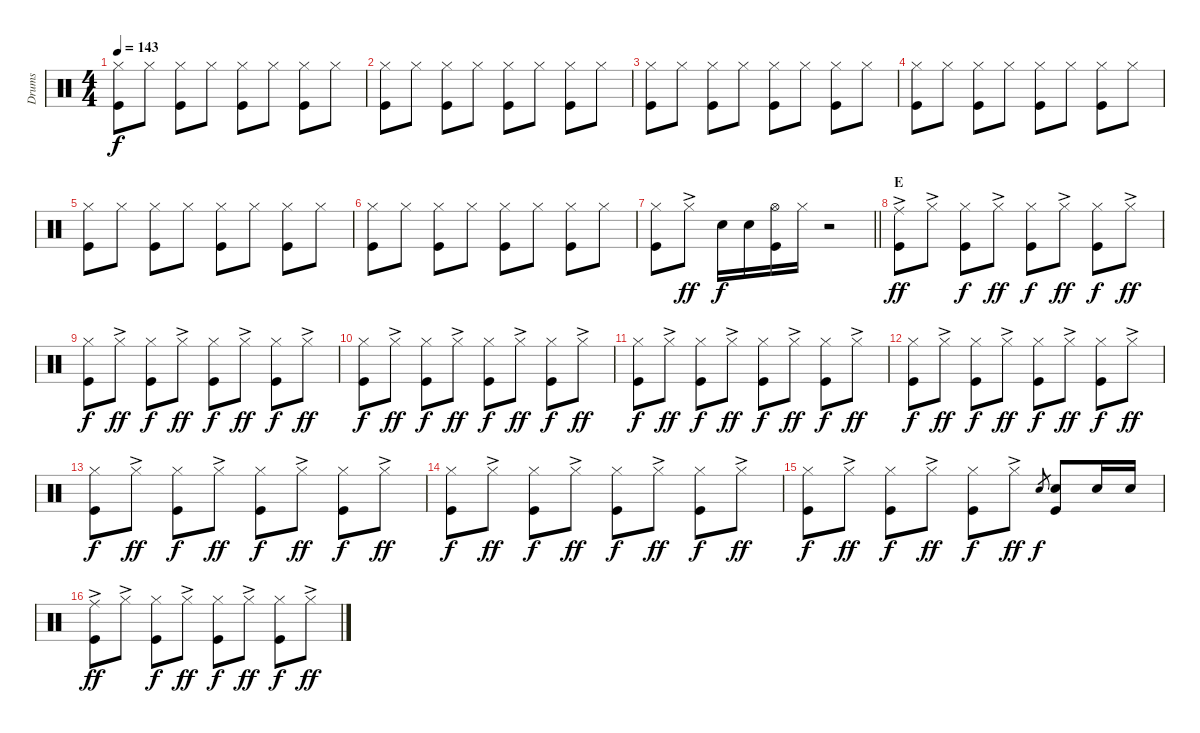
\track ("Drums" "Drums") {instrument percussion}
\staff {score}
\articulation defaults
\ts (4 4)
\tempo 143
\clef neutral
\ks c
("Kick (hit)" "Hi-Hat (closed)").8{dy f} "Hi-Hat (closed)".8 ("Hi-Hat (closed)" "Kick (hit)").8 "Hi-Hat (closed)".8 ("Hi-Hat (closed)" "Kick (hit)").8 "Hi-Hat (closed)".8 ("Hi-Hat (closed)" "Kick (hit)").8 "Hi-Hat (closed)".8 |
("Kick (hit)" "Hi-Hat (closed)").8 "Hi-Hat (closed)".8 ("Hi-Hat (closed)" "Kick (hit)").8 "Hi-Hat (closed)".8 ("Hi-Hat (closed)" "Kick (hit)").8 "Hi-Hat (closed)".8 ("Hi-Hat (closed)" "Kick (hit)").8 "Hi-Hat (closed)".8 |
("Kick (hit)" "Hi-Hat (closed)").8 "Hi-Hat (closed)".8 ("Hi-Hat (closed)" "Kick (hit)").8 "Hi-Hat (closed)".8 ("Hi-Hat (closed)" "Kick (hit)").8 "Hi-Hat (closed)".8 ("Hi-Hat (closed)" "Kick (hit)").8 "Hi-Hat (closed)".8 |
("Kick (hit)" "Hi-Hat (closed)").8 "Hi-Hat (closed)".8 ("Hi-Hat (closed)" "Kick (hit)").8 "Hi-Hat (closed)".8 ("Hi-Hat (closed)" "Kick (hit)").8 "Hi-Hat (closed)".8 ("Hi-Hat (closed)" "Kick (hit)").8 "Hi-Hat (closed)".8 |
("Kick (hit)" "Hi-Hat (closed)").8 "Hi-Hat (closed)".8 ("Hi-Hat (closed)" "Kick (hit)").8 "Hi-Hat (closed)".8 ("Hi-Hat (closed)" "Kick (hit)").8 "Hi-Hat (closed)".8 ("Hi-Hat (closed)" "Kick (hit)").8 "Hi-Hat (closed)".8 |
("Kick (hit)" "Hi-Hat (closed)").8 "Hi-Hat (closed)".8 ("Hi-Hat (closed)" "Kick (hit)").8 "Hi-Hat (closed)".8 ("Hi-Hat (closed)" "Kick (hit)").8 "Hi-Hat (closed)".8 ("Hi-Hat (closed)" "Kick (hit)").8 "Hi-Hat (closed)".8 |
\barLineRight lightlight
("Kick (hit)" "Hi-Hat (closed)").8 "Hi-Hat (closed)"{ac}.8{dy ff} "Snare (hit) 2".16{dy f} "Snare (hit) 2".16 ("Hi-Hat (open)" "Kick (hit)").16 "Hi-Hat (closed)".16 r.2 |
\section ("" "E")
("Ride (middle)"{ac} "Kick (hit)").8{dy ff} "Hi-Hat (closed)"{ac}.8 ("Hi-Hat (closed)" "Kick (hit)").8{dy f} "Hi-Hat (closed)"{ac}.8{dy ff} ("Hi-Hat (closed)" "Kick (hit)").8{dy f} "Hi-Hat (closed)"{ac}.8{dy ff} ("Hi-Hat (closed)" "Kick (hit)").8{dy f} "Hi-Hat (closed)"{ac}.8{dy ff} |
("Kick (hit)" "Hi-Hat (closed)").8{dy f} "Hi-Hat (closed)"{ac}.8{dy ff} ("Hi-Hat (closed)" "Kick (hit)").8{dy f} "Hi-Hat (closed)"{ac}.8{dy ff} ("Hi-Hat (closed)" "Kick (hit)").8{dy f} "Hi-Hat (closed)"{ac}.8{dy ff} ("Hi-Hat (closed)" "Kick (hit)").8{dy f} "Hi-Hat (closed)"{ac}.8{dy ff} |
("Kick (hit)" "Hi-Hat (closed)").8{dy f} "Hi-Hat (closed)"{ac}.8{dy ff} ("Hi-Hat (closed)" "Kick (hit)").8{dy f} "Hi-Hat (closed)"{ac}.8{dy ff} ("Hi-Hat (closed)" "Kick (hit)").8{dy f} "Hi-Hat (closed)"{ac}.8{dy ff} ("Hi-Hat (closed)" "Kick (hit)").8{dy f} "Hi-Hat (closed)"{ac}.8{dy ff} |
("Kick (hit)" "Hi-Hat (closed)").8{dy f} "Hi-Hat (closed)"{ac}.8{dy ff} ("Hi-Hat (closed)" "Kick (hit)").8{dy f} "Hi-Hat (closed)"{ac}.8{dy ff} ("Hi-Hat (closed)" "Kick (hit)").8{dy f} "Hi-Hat (closed)"{ac}.8{dy ff} ("Hi-Hat (closed)" "Kick (hit)").8{dy f} "Hi-Hat (closed)"{ac}.8{dy ff} |
("Kick (hit)" "Hi-Hat (closed)").8{dy f} "Hi-Hat (closed)"{ac}.8{dy ff} ("Hi-Hat (closed)" "Kick (hit)").8{dy f} "Hi-Hat (closed)"{ac}.8{dy ff} ("Hi-Hat (closed)" "Kick (hit)").8{dy f} "Hi-Hat (closed)"{ac}.8{dy ff} ("Hi-Hat (closed)" "Kick (hit)").8{dy f} "Hi-Hat (closed)"{ac}.8{dy ff} |
("Kick (hit)" "Hi-Hat (closed)").8{dy f} "Hi-Hat (closed)"{ac}.8{dy ff} ("Hi-Hat (closed)" "Kick (hit)").8{dy f} "Hi-Hat (closed)"{ac}.8{dy ff} ("Hi-Hat (closed)" "Kick (hit)").8{dy f} "Hi-Hat (closed)"{ac}.8{dy ff} ("Hi-Hat (closed)" "Kick (hit)").8{dy f} "Hi-Hat (closed)"{ac}.8{dy ff} |
("Kick (hit)" "Hi-Hat (closed)").8{dy f} "Hi-Hat (closed)"{ac}.8{dy ff} ("Hi-Hat (closed)" "Kick (hit)").8{dy f} "Hi-Hat (closed)"{ac}.8{dy ff} ("Hi-Hat (closed)" "Kick (hit)").8{dy f} "Hi-Hat (closed)"{ac}.8{dy ff} ("Hi-Hat (closed)" "Kick (hit)").8{dy f} "Hi-Hat (closed)"{ac}.8{dy ff} |
("Kick (hit)" "Hi-Hat (closed)").8{dy f} "Hi-Hat (closed)"{ac}.8{dy ff} ("Hi-Hat (closed)" "Kick (hit)").8{dy f} "Hi-Hat (closed)"{ac}.8{dy ff} ("Hi-Hat (closed)" "Kick (hit)").8{dy f} "Hi-Hat (closed)"{ac}.8{dy ff} "Snare (hit) 2".8{gr dy f} ("Snare (hit) 2" "Kick (hit)").8 "Snare (hit) 2".16 "Snare (hit) 2".16 |
("Ride (middle)"{ac} "Kick (hit)").8{dy ff} "Hi-Hat (closed)"{ac}.8 ("Hi-Hat (closed)" "Kick (hit)").8{dy f} "Hi-Hat (closed)"{ac}.8{dy ff} ("Hi-Hat (closed)" "Kick (hit)").8{dy f} "Hi-Hat (closed)"{ac}.8{dy ff} ("Hi-Hat (closed)" "Kick (hit)").8{dy f} "Hi-Hat (closed)"{ac}.8{dy ff}
